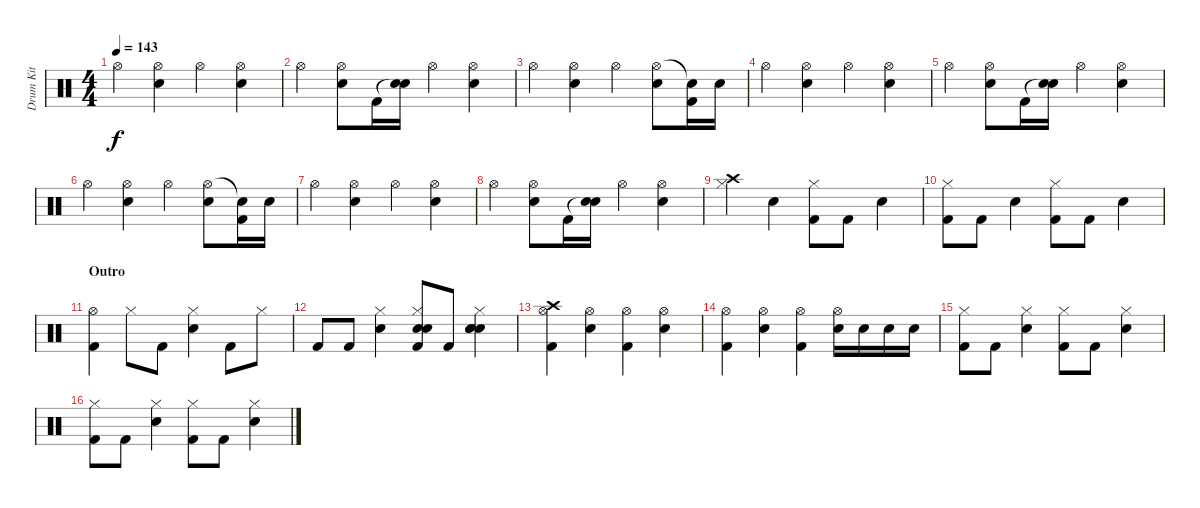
\track ("Drum Kit" "Drum Kit") {instrument percussion}
\staff {score}
\articulation defaults
\ts (4 4)
\tempo 143
\clef neutral
\ks c "Hi-Hat (open)".4{dy f}
("Hi-Hat (open)" "Snare (hit) 2").4 "Hi-Hat (open)".4 ("Hi-Hat (open)" "Snare (hit) 2").4 |
"Hi-Hat (open)".4 ("Hi-Hat (open)" "Snare (hit) 2").8 "Kick (hit) 2".16 ("Snare (hit)"{t} "Snare (hit) 2").16 "Hi-Hat (open)".4 ("Hi-Hat (open)" "Snare (hit) 2").4 |
"Hi-Hat (open)".4 ("Hi-Hat (open)" "Snare (hit) 2").4 "Hi-Hat (open)".4 ("Hi-Hat (open)" "Snare (hit) 2").8 ("Snare (hit)"{t} "Kick (hit) 2").16 "Snare (hit) 2".16 |
"Hi-Hat (open)".4 ("Hi-Hat (open)" "Snare (hit) 2").4 "Hi-Hat (open)".4 ("Hi-Hat (open)" "Snare (hit) 2").4 |
"Hi-Hat (open)".4 ("Hi-Hat (open)" "Snare (hit) 2").8 "Kick (hit) 2".16 ("Snare (hit)"{t} "Snare (hit) 2").16 "Hi-Hat (open)".4 ("Hi-Hat (open)" "Snare (hit) 2").4 |
"Hi-Hat (open)".4 ("Hi-Hat (open)" "Snare (hit) 2").4 "Hi-Hat (open)".4 ("Hi-Hat (open)" "Snare (hit) 2").8 ("Snare (hit)"{t} "Kick (hit) 2").16 "Snare (hit) 2".16 |
"Hi-Hat (open)".4 ("Hi-Hat (open)" "Snare (hit) 2").4 "Hi-Hat (open)".4 ("Hi-Hat (open)" "Snare (hit) 2").4 |
"Hi-Hat (open)".4 ("Hi-Hat (open)" "Snare (hit) 2").8 "Kick (hit) 2".16 ("Snare (hit)"{t} "Snare (hit) 2").16 "Hi-Hat (open)".4 ("Hi-Hat (open)" "Snare (hit) 2").4 |
("Crash high (hit)" "Hi-Hat (closed)").4 "Snare (hit) 2".4 ("Hi-Hat (closed)" "Kick (hit) 2").8 "Kick (hit) 2".8 "Snare (hit) 2".4 |
("Hi-Hat (closed)" "Kick (hit) 2").8 "Kick (hit) 2".8 "Snare (hit) 2".4 ("Hi-Hat (closed)" "Kick (hit) 2").8 "Kick (hit) 2".8 "Snare (hit) 2".4 |
\section ("" "Outro")
("Hi-Hat (open)" "Kick (hit) 2").4 "Hi-Hat (closed)".8 "Kick (hit) 2".8 ("Hi-Hat (closed)" "Snare (hit) 2").4 "Kick (hit) 2".8 "Hi-Hat (closed)".8 |
"Kick (hit) 2".8 "Kick (hit) 2".8 ("Hi-Hat (closed)" "Snare (hit) 2").4 ("Hi-Hat (closed)" "Kick (hit) 2" "Snare (hit) 2" "Electric Snare (hit)").8 "Kick (hit) 2".8 ("Hi-Hat (closed)" "Snare (hit) 2" "Snare (hit) 2" "Electric Snare (hit)").4 |
("Hi-Hat (open)" "Crash high (hit)" "Kick (hit) 2").4 ("Hi-Hat (open)" "Snare (hit) 2").4 ("Hi-Hat (open)" "Kick (hit) 2").4 ("Hi-Hat (open)" "Snare (hit) 2").4 |
("Hi-Hat (open)" "Kick (hit) 2").4 ("Hi-Hat (open)" "Snare (hit) 2").4 ("Hi-Hat (open)" "Kick (hit) 2").4 ("Hi-Hat (open)" "Snare (hit) 2").16 "Snare (hit) 2".16 "Snare (hit) 2".16 "Snare (hit) 2".16 |
("Hi-Hat (closed)" "Kick (hit) 2").8 "Kick (hit) 2".8 ("Hi-Hat (closed)" "Snare (hit) 2").4 ("Hi-Hat (closed)" "Kick (hit) 2").8 "Kick (hit) 2".8 ("Hi-Hat (closed)" "Snare (hit) 2").4 |
("Hi-Hat (closed)" "Kick (hit) 2").8 "Kick (hit) 2".8 ("Hi-Hat (closed)" "Snare (hit) 2").4 ("Hi-Hat (closed)" "Kick (hit) 2").8 "Kick (hit) 2".8 ("Hi-Hat (closed)" "Snare (hit) 2").4
